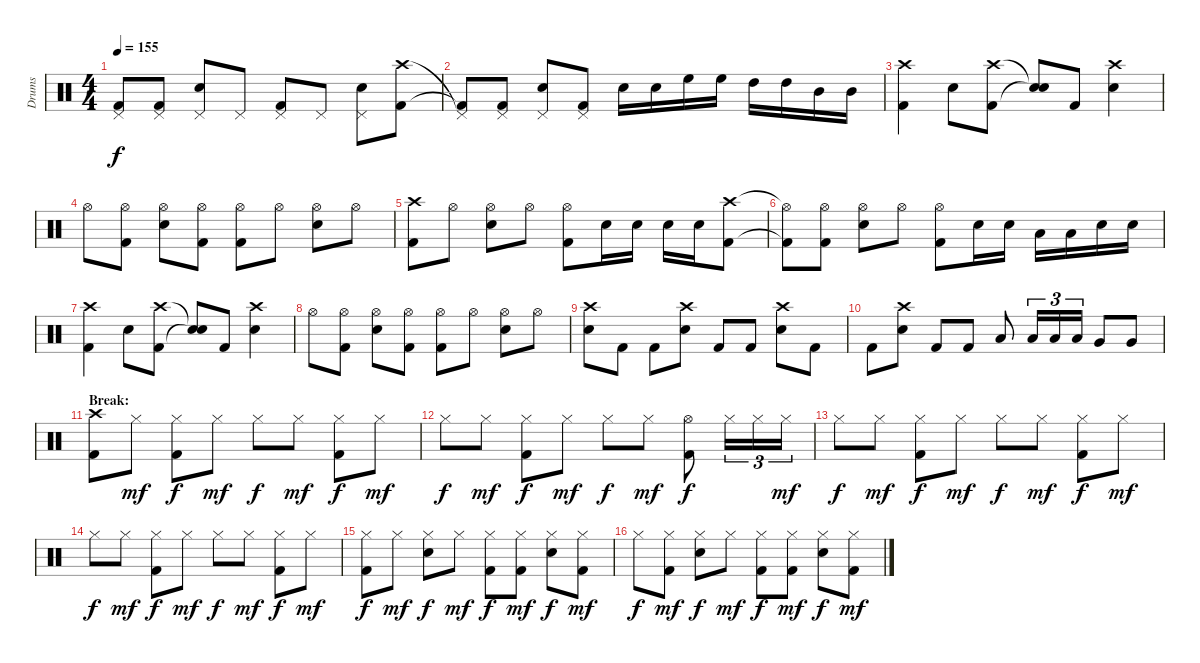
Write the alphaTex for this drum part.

\track ("Drums" "Drums") {instrument percussion}
\staff {score}
\articulation defaults
\ts (4 4)
\tempo 155
\clef neutral
\ks c
("Pedal Hi-Hat (hit)"{t} "Kick (hit) 2"{t}).8{dy f} ("Pedal Hi-Hat (hit)" "Kick (hit) 2").8 ("Pedal Hi-Hat (hit)" "Electric Snare (hit)").8 "Pedal Hi-Hat (hit)".8 ("Pedal Hi-Hat (hit)" "Kick (hit) 2").8 "Pedal Hi-Hat (hit)".8 ("Pedal Hi-Hat (hit)" "Electric Snare (hit)").8 ("Crash high (hit)" "Kick (hit) 2").8 |
("Pedal Hi-Hat (hit)"{t} "Kick (hit) 2"{t}).8 ("Pedal Hi-Hat (hit)" "Kick (hit) 2").8 ("Pedal Hi-Hat (hit)" "Electric Snare (hit)").8 ("Pedal Hi-Hat (hit)" "Kick (hit) 2").8 "Electric Snare (hit)".16 "Electric Snare (hit)".16 "High Floor Tom (hit)".16 "High Floor Tom (hit)".16 "High Tom (hit)".16 "High Tom (hit)".16 "Mid Tom (hit)".16 "Mid Tom (hit)".16 |
("Crash high (hit)" "Kick (hit) 2").4 "Electric Snare (hit)".8 ("Crash high (hit)" "Kick (hit) 2").8 ("Snare (hit)"{t} "Snare (hit)"{t}).8 "Kick (hit) 2".8 ("Crash high (hit)" "Electric Snare (hit)").4 |
"Hi-Hat (open)".8 ("Hi-Hat (open)" "Kick (hit) 2").8 ("Hi-Hat (open)" "Electric Snare (hit)").8 ("Hi-Hat (open)" "Kick (hit) 2").8 ("Hi-Hat (open)" "Kick (hit) 2").8 "Hi-Hat (open)".8 ("Hi-Hat (open)" "Electric Snare (hit)").8 "Hi-Hat (open)".8 |
("Crash high (hit)" "Kick (hit) 2").8 "Hi-Hat (open)".8 ("Hi-Hat (open)" "Electric Snare (hit)").8 "Hi-Hat (open)".8 ("Hi-Hat (open)" "Kick (hit) 2").8 "Electric Snare (hit)".16 "Electric Snare (hit)".16 "Electric Snare (hit)".16 "Electric Snare (hit)".16 ("Crash high (hit)" "Kick (hit) 2").8 |
("Hi-Hat (open)"{t} "Kick (hit) 2"{t}).8 ("Hi-Hat (open)" "Kick (hit) 2").8 ("Hi-Hat (open)" "Electric Snare (hit)").8 "Hi-Hat (open)".8 ("Hi-Hat (open)" "Kick (hit) 2").8 "Electric Snare (hit)".16 "Electric Snare (hit)".16 "Low Tom (hit)".16 "Low Tom (hit)".16 "Electric Snare (hit)".16 "Electric Snare (hit)".16 |
("Crash high (hit)" "Kick (hit) 2").4 "Electric Snare (hit)".8 ("Crash high (hit)" "Kick (hit) 2").8 ("Snare (hit)"{t} "Snare (hit)"{t}).8 "Kick (hit) 2".8 ("Crash high (hit)" "Electric Snare (hit)").4 |
"Hi-Hat (open)".8 ("Hi-Hat (open)" "Kick (hit) 2").8 ("Hi-Hat (open)" "Electric Snare (hit)").8 ("Hi-Hat (open)" "Kick (hit) 2").8 ("Hi-Hat (open)" "Kick (hit) 2").8 "Hi-Hat (open)".8 ("Hi-Hat (open)" "Electric Snare (hit)").8 "Hi-Hat (open)".8 |
("Crash high (hit)" "Electric Snare (hit)").8 "Kick (hit) 2".8 "Kick (hit) 2".8 ("Crash high (hit)" "Electric Snare (hit)").8 "Kick (hit) 2".8 "Kick (hit) 2".8 ("Crash high (hit)" "Electric Snare (hit)").8 "Kick (hit) 2".8 |
"Kick (hit) 2".8 ("Crash high (hit)" "Electric Snare (hit)").8 "Kick (hit) 2".8 "Kick (hit) 2".8 "Low Tom (hit)".8 "Low Tom (hit)".16{tu (3 2)} "Low Tom (hit)".16{tu (3 2)} "Low Tom (hit)".16{tu (3 2)} "Very Low Tom (hit)".8 "Very Low Tom (hit)".8 |
\section ("" "Break:")
("Crash high (hit)" "Kick (hit) 2").8 "Hi-Hat (closed)".8{dy mf} ("Hi-Hat (closed)" "Kick (hit) 2").8{dy f} "Hi-Hat (closed)".8{dy mf} "Hi-Hat (closed)".8{dy f} "Hi-Hat (closed)".8{dy mf} ("Hi-Hat (closed)" "Kick (hit) 2").8{dy f} "Hi-Hat (closed)".8{dy mf} |
"Hi-Hat (closed)".8{dy f} "Hi-Hat (closed)".8{dy mf} ("Hi-Hat (closed)" "Kick (hit) 2").8{dy f} "Hi-Hat (closed)".8{dy mf} "Hi-Hat (closed)".8{dy f} "Hi-Hat (closed)".8{dy mf} ("Hi-Hat (open)" "Kick (hit) 2").8{dy f} "Hi-Hat (closed)".16{tu (3 2)} "Hi-Hat (closed)".16{tu (3 2)} "Hi-Hat (closed)".16{tu (3 2) dy mf} |
"Hi-Hat (closed)".8{dy f} "Hi-Hat (closed)".8{dy mf} ("Hi-Hat (closed)" "Kick (hit) 2").8{dy f} "Hi-Hat (closed)".8{dy mf} "Hi-Hat (closed)".8{dy f} "Hi-Hat (closed)".8{dy mf} ("Hi-Hat (closed)" "Kick (hit) 2").8{dy f} "Hi-Hat (closed)".8{dy mf} |
"Hi-Hat (closed)".8{dy f} "Hi-Hat (closed)".8{dy mf} ("Hi-Hat (closed)" "Kick (hit) 2").8{dy f} "Hi-Hat (closed)".8{dy mf} "Hi-Hat (closed)".8{dy f} "Hi-Hat (closed)".8{dy mf} ("Hi-Hat (closed)" "Kick (hit) 2").8{dy f} "Hi-Hat (closed)".8{dy mf} |
("Hi-Hat (closed)" "Kick (hit) 2").8{dy f} "Hi-Hat (closed)".8{dy mf} ("Hi-Hat (closed)" "Electric Snare (hit)").8{dy f} "Hi-Hat (closed)".8{dy mf} ("Hi-Hat (closed)" "Kick (hit) 2").8{dy f} ("Hi-Hat (closed)" "Kick (hit) 2").8{dy mf} ("Hi-Hat (closed)" "Electric Snare (hit)").8{dy f} ("Hi-Hat (closed)" "Kick (hit) 2").8{dy mf} |
"Hi-Hat (closed)".8{dy f} ("Hi-Hat (closed)" "Kick (hit) 2").8{dy mf} ("Hi-Hat (closed)" "Electric Snare (hit)").8{dy f} "Hi-Hat (closed)".8{dy mf} ("Hi-Hat (closed)" "Kick (hit) 2").8{dy f} ("Hi-Hat (closed)" "Kick (hit) 2").8{dy mf} ("Hi-Hat (closed)" "Electric Snare (hit)").8{dy f} ("Hi-Hat (closed)" "Kick (hit) 2").8{dy mf}
